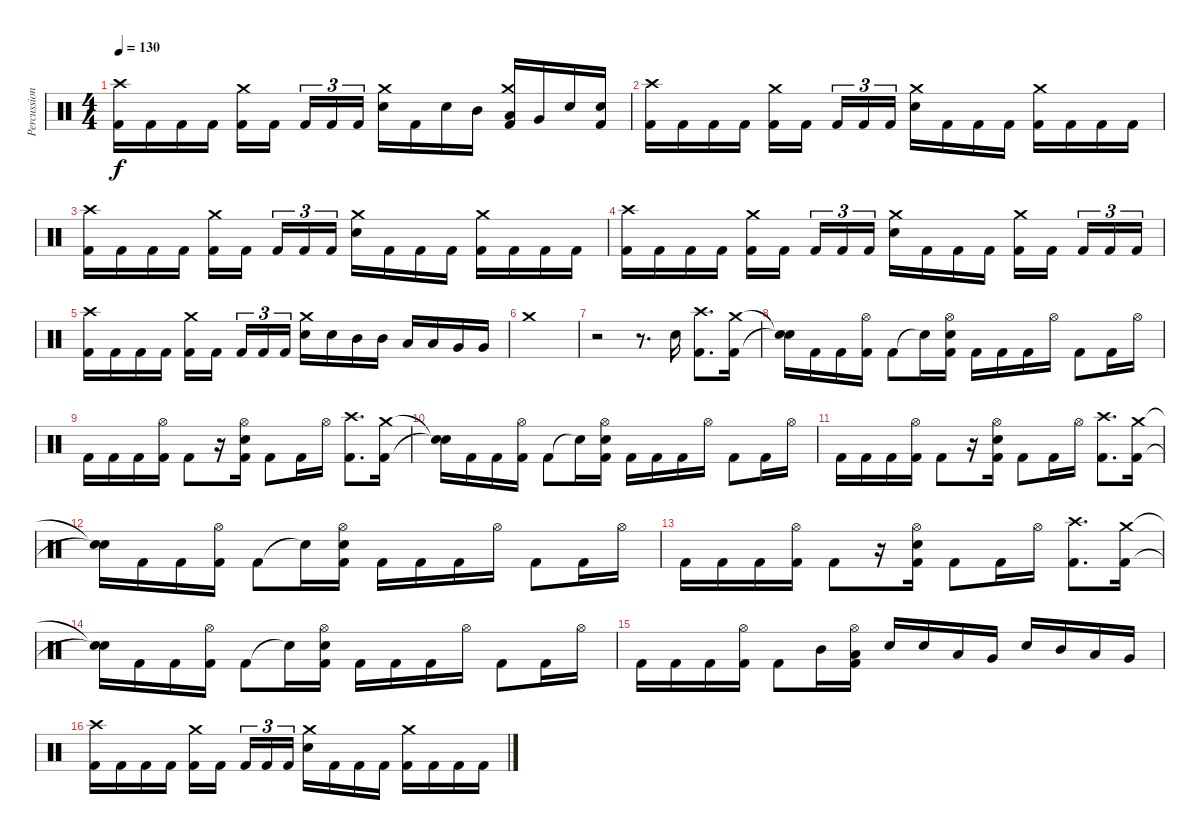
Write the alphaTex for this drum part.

\track ("Percussion" "Percussion") {instrument percussion}
\staff {score}
\articulation defaults
\ts (4 4)
\tempo 130
\clef neutral
\ks c
("Crash high (hit)" "Kick (hit) 2").16{dy f} "Kick (hit) 2".16 "Kick (hit) 2".16 "Kick (hit) 2".16 ("Crash medium (hit)" "Kick (hit) 2").16 "Kick (hit) 2".16{beam splitsecondary} "Kick (hit) 2".16{tu (3 2)} "Kick (hit) 2".16{tu (3 2)} "Kick (hit) 2".16{tu (3 2)} ("Crash medium (hit)" "Electric Snare (hit)").16 "Kick (hit) 2".16 "Electric Snare (hit)".16 "Mid Tom (hit)".16 ("Crash medium (hit)" "Low Tom (hit)" "Kick (hit) 2").16 "Very Low Tom (hit)".16 "Electric Snare (hit)".16 ("Electric Snare (hit)" "Kick (hit) 2").16 |
("Crash high (hit)" "Kick (hit) 2").16 "Kick (hit) 2".16 "Kick (hit) 2".16 "Kick (hit) 2".16 ("Crash medium (hit)" "Kick (hit) 2").16 "Kick (hit) 2".16{beam splitsecondary} "Kick (hit) 2".16{tu (3 2)} "Kick (hit) 2".16{tu (3 2)} "Kick (hit) 2".16{tu (3 2)} ("Crash medium (hit)" "Electric Snare (hit)").16 "Kick (hit) 2".16 "Kick (hit) 2".16 "Kick (hit) 2".16 ("Crash medium (hit)" "Kick (hit) 2").16 "Kick (hit) 2".16 "Kick (hit) 2".16 "Kick (hit) 2".16 |
("Crash high (hit)" "Kick (hit) 2").16 "Kick (hit) 2".16 "Kick (hit) 2".16 "Kick (hit) 2".16 ("Crash medium (hit)" "Kick (hit) 2").16 "Kick (hit) 2".16{beam splitsecondary} "Kick (hit) 2".16{tu (3 2)} "Kick (hit) 2".16{tu (3 2)} "Kick (hit) 2".16{tu (3 2)} ("Crash medium (hit)" "Electric Snare (hit)").16 "Kick (hit) 2".16 "Kick (hit) 2".16 "Kick (hit) 2".16 ("Crash medium (hit)" "Kick (hit) 2").16 "Kick (hit) 2".16 "Kick (hit) 2".16 "Kick (hit) 2".16 |
("Crash high (hit)" "Kick (hit) 2").16 "Kick (hit) 2".16 "Kick (hit) 2".16 "Kick (hit) 2".16 ("Crash medium (hit)" "Kick (hit) 2").16 "Kick (hit) 2".16{beam splitsecondary} "Kick (hit) 2".16{tu (3 2)} "Kick (hit) 2".16{tu (3 2)} "Kick (hit) 2".16{tu (3 2)} ("Crash medium (hit)" "Electric Snare (hit)").16 "Kick (hit) 2".16 "Kick (hit) 2".16 "Kick (hit) 2".16 ("Crash medium (hit)" "Kick (hit) 2").16 "Kick (hit) 2".16{beam splitsecondary} "Kick (hit) 2".16{tu (3 2)} "Kick (hit) 2".16{tu (3 2)} "Kick (hit) 2".16{tu (3 2)} |
("Crash high (hit)" "Kick (hit) 2").16 "Kick (hit) 2".16 "Kick (hit) 2".16 "Kick (hit) 2".16 ("Crash medium (hit)" "Kick (hit) 2").16 "Kick (hit) 2".16{beam splitsecondary} "Kick (hit) 2".16{tu (3 2)} "Kick (hit) 2".16{tu (3 2)} "Kick (hit) 2".16{tu (3 2)} ("Crash medium (hit)" "Electric Snare (hit)").16 "Electric Snare (hit)".16 "Mid Tom (hit)".16 "Mid Tom (hit)".16 "Low Tom (hit)".16 "Low Tom (hit)".16 "Very Low Tom (hit)".16 "Very Low Tom (hit)".16 |
"Crash medium (hit)".1 |
r.2 r.8{d} "Electric Snare (hit)".16 ("Crash high (hit)" "Kick (hit) 2").8{d} ("Crash medium (hit)" "Kick (hit) 2").16 |
("Snare (hit)"{t} "Snare (hit)"{t}).16 "Kick (hit) 2".16 "Kick (hit) 2".16 ("Hi-Hat (open)" "Kick (hit) 2").16 "Kick (hit) 2".8 "Snare (hit)"{t}.16 ("Hi-Hat (open)" "Electric Snare (hit)" "Kick (hit) 2").16 "Kick (hit) 2".16 "Kick (hit) 2".16 "Kick (hit) 2".16 "Hi-Hat (open)".16 "Kick (hit) 2".8 "Kick (hit) 2".16 "Hi-Hat (open)".16 |
"Kick (hit) 2".16 "Kick (hit) 2".16 "Kick (hit) 2".16 ("Hi-Hat (open)" "Kick (hit) 2").16 "Kick (hit) 2".8 r.16 ("Hi-Hat (open)" "Electric Snare (hit)" "Kick (hit) 2").16 "Kick (hit) 2".8 "Kick (hit) 2".16 "Hi-Hat (open)".16 ("Crash high (hit)" "Kick (hit) 2").8{d} ("Crash medium (hit)" "Kick (hit) 2").16 |
("Snare (hit)"{t} "Snare (hit)"{t}).16 "Kick (hit) 2".16 "Kick (hit) 2".16 ("Hi-Hat (open)" "Kick (hit) 2").16 "Kick (hit) 2".8 "Snare (hit)"{t}.16 ("Hi-Hat (open)" "Electric Snare (hit)" "Kick (hit) 2").16 "Kick (hit) 2".16 "Kick (hit) 2".16 "Kick (hit) 2".16 "Hi-Hat (open)".16 "Kick (hit) 2".8 "Kick (hit) 2".16 "Hi-Hat (open)".16 |
"Kick (hit) 2".16 "Kick (hit) 2".16 "Kick (hit) 2".16 ("Hi-Hat (open)" "Kick (hit) 2").16 "Kick (hit) 2".8 r.16 ("Hi-Hat (open)" "Electric Snare (hit)" "Kick (hit) 2").16 "Kick (hit) 2".8 "Kick (hit) 2".16 "Hi-Hat (open)".16 ("Crash high (hit)" "Kick (hit) 2").8{d} ("Crash medium (hit)" "Kick (hit) 2").16 |
("Snare (hit)"{t} "Snare (hit)"{t}).16 "Kick (hit) 2".16 "Kick (hit) 2".16 ("Hi-Hat (open)" "Kick (hit) 2").16 "Kick (hit) 2".8 "Snare (hit)"{t}.16 ("Hi-Hat (open)" "Electric Snare (hit)" "Kick (hit) 2").16 "Kick (hit) 2".16 "Kick (hit) 2".16 "Kick (hit) 2".16 "Hi-Hat (open)".16 "Kick (hit) 2".8 "Kick (hit) 2".16 "Hi-Hat (open)".16 |
"Kick (hit) 2".16 "Kick (hit) 2".16 "Kick (hit) 2".16 ("Hi-Hat (open)" "Kick (hit) 2").16 "Kick (hit) 2".8 r.16 ("Hi-Hat (open)" "Electric Snare (hit)" "Kick (hit) 2").16 "Kick (hit) 2".8 "Kick (hit) 2".16 "Hi-Hat (open)".16 ("Crash high (hit)" "Kick (hit) 2").8{d} ("Crash medium (hit)" "Kick (hit) 2").16 |
("Snare (hit)"{t} "Snare (hit)"{t}).16 "Kick (hit) 2".16 "Kick (hit) 2".16 ("Hi-Hat (open)" "Kick (hit) 2").16 "Kick (hit) 2".8 "Snare (hit)"{t}.16 ("Hi-Hat (open)" "Electric Snare (hit)" "Kick (hit) 2").16 "Kick (hit) 2".16 "Kick (hit) 2".16 "Kick (hit) 2".16 "Hi-Hat (open)".16 "Kick (hit) 2".8 "Kick (hit) 2".16 "Hi-Hat (open)".16 |
"Kick (hit) 2".16 "Kick (hit) 2".16 "Kick (hit) 2".16 ("Hi-Hat (open)" "Kick (hit) 2").16 "Kick (hit) 2".8 "Mid Tom (hit)".16 ("Hi-Hat (open)" "Low Tom (hit)" "Kick (hit) 2").16 "Electric Snare (hit)".16 "Electric Snare (hit)".16 "Low Tom (hit)".16 "Very Low Tom (hit)".16 "Electric Snare (hit)".16 "Mid Tom (hit)".16 "Low Tom (hit)".16 "Very Low Tom (hit)".16 |
("Crash high (hit)" "Kick (hit) 2").16 "Kick (hit) 2".16 "Kick (hit) 2".16 "Kick (hit) 2".16 ("Crash medium (hit)" "Kick (hit) 2").16 "Kick (hit) 2".16{beam splitsecondary} "Kick (hit) 2".16{tu (3 2)} "Kick (hit) 2".16{tu (3 2)} "Kick (hit) 2".16{tu (3 2)} ("Crash medium (hit)" "Electric Snare (hit)").16 "Kick (hit) 2".16 "Kick (hit) 2".16 "Kick (hit) 2".16 ("Crash medium (hit)" "Kick (hit) 2").16 "Kick (hit) 2".16 "Kick (hit) 2".16 "Kick (hit) 2".16
